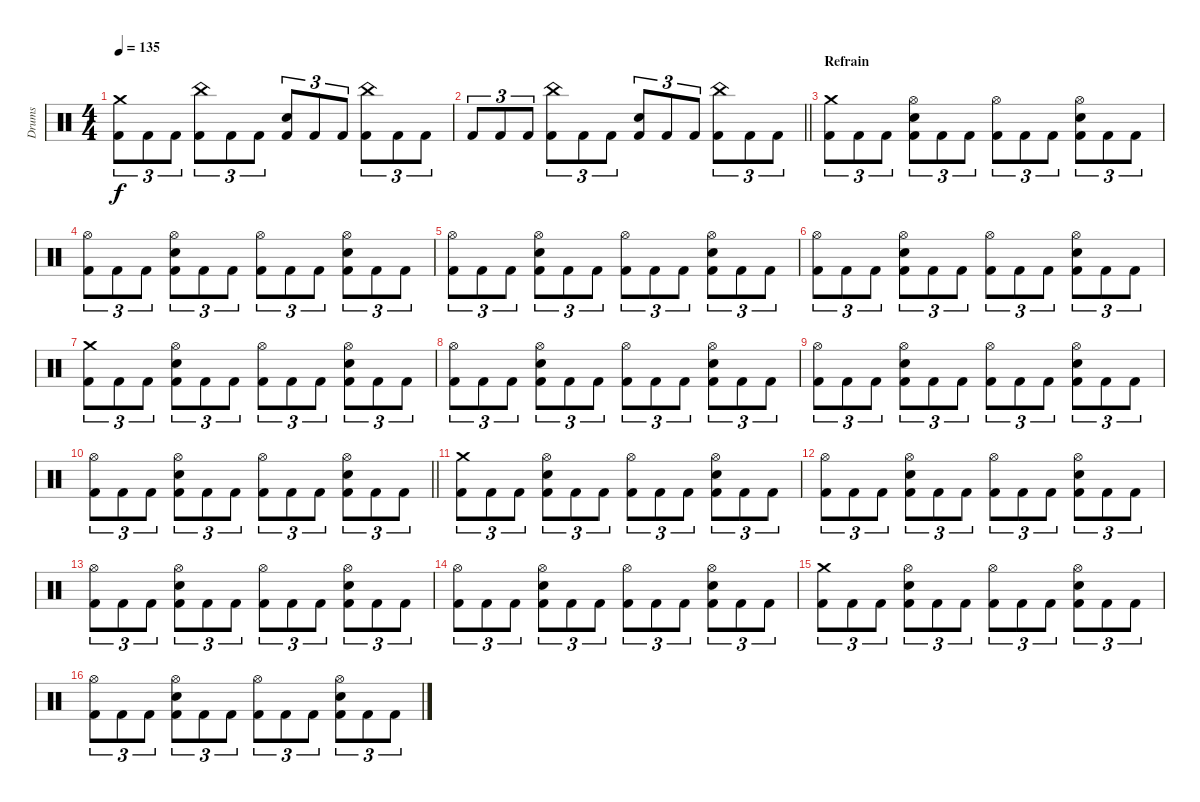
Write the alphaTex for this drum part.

\track ("Drums" "Drums") {instrument percussion}
\staff {score}
\articulation defaults
\ts (4 4)
\tempo 135
\clef neutral
\ks c
("Crash medium (hit)" "Kick (hit) 2").8{tu (3 2) dy f} "Kick (hit) 2".8{tu (3 2)} "Kick (hit) 2".8{tu (3 2)} ("China (hit)" "Kick (hit) 2").8{tu (3 2)} "Kick (hit) 2".8{tu (3 2)} "Kick (hit) 2".8{tu (3 2)} ("Snare (hit) 2" "Kick (hit) 2").8{tu (3 2)} "Kick (hit) 2".8{tu (3 2)} "Kick (hit) 2".8{tu (3 2)} ("China (hit)" "Kick (hit) 2").8{tu (3 2)} "Kick (hit) 2".8{tu (3 2)} "Kick (hit) 2".8{tu (3 2)} |
\barLineRight lightlight "Kick (hit) 2".8{tu (3 2)} "Kick (hit) 2".8{tu (3 2)} "Kick (hit) 2".8{tu (3 2)}
("China (hit)" "Kick (hit) 2").8{tu (3 2)} "Kick (hit) 2".8{tu (3 2)} "Kick (hit) 2".8{tu (3 2)} ("Snare (hit) 2" "Kick (hit) 2").8{tu (3 2)} "Kick (hit) 2".8{tu (3 2)} "Kick (hit) 2".8{tu (3 2)} ("China (hit)" "Kick (hit) 2").8{tu (3 2)} "Kick (hit) 2".8{tu (3 2)} "Kick (hit) 2".8{tu (3 2)} |
\section ("" "Refrain")
("Crash medium (hit)" "Kick (hit) 2").8{tu (3 2)} "Kick (hit) 2".8{tu (3 2)} "Kick (hit) 2".8{tu (3 2)} ("Hi-Hat (open)" "Snare (hit) 2" "Kick (hit) 2").8{tu (3 2)} "Kick (hit) 2".8{tu (3 2)} "Kick (hit) 2".8{tu (3 2)} ("Hi-Hat (open)" "Kick (hit) 2").8{tu (3 2)} "Kick (hit) 2".8{tu (3 2)} "Kick (hit) 2".8{tu (3 2)} ("Hi-Hat (open)" "Snare (hit) 2" "Kick (hit) 2").8{tu (3 2)} "Kick (hit) 2".8{tu (3 2)} "Kick (hit) 2".8{tu (3 2)} |
("Hi-Hat (open)" "Kick (hit) 2").8{tu (3 2)} "Kick (hit) 2".8{tu (3 2)} "Kick (hit) 2".8{tu (3 2)} ("Hi-Hat (open)" "Snare (hit) 2" "Kick (hit) 2").8{tu (3 2)} "Kick (hit) 2".8{tu (3 2)} "Kick (hit) 2".8{tu (3 2)} ("Hi-Hat (open)" "Kick (hit) 2").8{tu (3 2)} "Kick (hit) 2".8{tu (3 2)} "Kick (hit) 2".8{tu (3 2)} ("Hi-Hat (open)" "Snare (hit) 2" "Kick (hit) 2").8{tu (3 2)} "Kick (hit) 2".8{tu (3 2)} "Kick (hit) 2".8{tu (3 2)} |
("Hi-Hat (open)" "Kick (hit) 2").8{tu (3 2)} "Kick (hit) 2".8{tu (3 2)} "Kick (hit) 2".8{tu (3 2)} ("Hi-Hat (open)" "Snare (hit) 2" "Kick (hit) 2").8{tu (3 2)} "Kick (hit) 2".8{tu (3 2)} "Kick (hit) 2".8{tu (3 2)} ("Hi-Hat (open)" "Kick (hit) 2").8{tu (3 2)} "Kick (hit) 2".8{tu (3 2)} "Kick (hit) 2".8{tu (3 2)} ("Hi-Hat (open)" "Snare (hit) 2" "Kick (hit) 2").8{tu (3 2)} "Kick (hit) 2".8{tu (3 2)} "Kick (hit) 2".8{tu (3 2)} |
("Hi-Hat (open)" "Kick (hit) 2").8{tu (3 2)} "Kick (hit) 2".8{tu (3 2)} "Kick (hit) 2".8{tu (3 2)} ("Hi-Hat (open)" "Snare (hit) 2" "Kick (hit) 2").8{tu (3 2)} "Kick (hit) 2".8{tu (3 2)} "Kick (hit) 2".8{tu (3 2)} ("Hi-Hat (open)" "Kick (hit) 2").8{tu (3 2)} "Kick (hit) 2".8{tu (3 2)} "Kick (hit) 2".8{tu (3 2)} ("Hi-Hat (open)" "Snare (hit) 2" "Kick (hit) 2").8{tu (3 2)} "Kick (hit) 2".8{tu (3 2)} "Kick (hit) 2".8{tu (3 2)} |
("Crash medium (hit)" "Kick (hit) 2").8{tu (3 2)} "Kick (hit) 2".8{tu (3 2)} "Kick (hit) 2".8{tu (3 2)} ("Hi-Hat (open)" "Snare (hit) 2" "Kick (hit) 2").8{tu (3 2)} "Kick (hit) 2".8{tu (3 2)} "Kick (hit) 2".8{tu (3 2)} ("Hi-Hat (open)" "Kick (hit) 2").8{tu (3 2)} "Kick (hit) 2".8{tu (3 2)} "Kick (hit) 2".8{tu (3 2)} ("Hi-Hat (open)" "Snare (hit) 2" "Kick (hit) 2").8{tu (3 2)} "Kick (hit) 2".8{tu (3 2)} "Kick (hit) 2".8{tu (3 2)} |
("Hi-Hat (open)" "Kick (hit) 2").8{tu (3 2)} "Kick (hit) 2".8{tu (3 2)} "Kick (hit) 2".8{tu (3 2)} ("Hi-Hat (open)" "Snare (hit) 2" "Kick (hit) 2").8{tu (3 2)} "Kick (hit) 2".8{tu (3 2)} "Kick (hit) 2".8{tu (3 2)} ("Hi-Hat (open)" "Kick (hit) 2").8{tu (3 2)} "Kick (hit) 2".8{tu (3 2)} "Kick (hit) 2".8{tu (3 2)} ("Hi-Hat (open)" "Snare (hit) 2" "Kick (hit) 2").8{tu (3 2)} "Kick (hit) 2".8{tu (3 2)} "Kick (hit) 2".8{tu (3 2)} |
("Hi-Hat (open)" "Kick (hit) 2").8{tu (3 2)} "Kick (hit) 2".8{tu (3 2)} "Kick (hit) 2".8{tu (3 2)} ("Hi-Hat (open)" "Snare (hit) 2" "Kick (hit) 2").8{tu (3 2)} "Kick (hit) 2".8{tu (3 2)} "Kick (hit) 2".8{tu (3 2)} ("Hi-Hat (open)" "Kick (hit) 2").8{tu (3 2)} "Kick (hit) 2".8{tu (3 2)} "Kick (hit) 2".8{tu (3 2)} ("Hi-Hat (open)" "Snare (hit) 2" "Kick (hit) 2").8{tu (3 2)} "Kick (hit) 2".8{tu (3 2)} "Kick (hit) 2".8{tu (3 2)} |
\barLineRight lightlight
("Hi-Hat (open)" "Kick (hit) 2").8{tu (3 2)} "Kick (hit) 2".8{tu (3 2)} "Kick (hit) 2".8{tu (3 2)} ("Hi-Hat (open)" "Snare (hit) 2" "Kick (hit) 2").8{tu (3 2)} "Kick (hit) 2".8{tu (3 2)} "Kick (hit) 2".8{tu (3 2)} ("Hi-Hat (open)" "Kick (hit) 2").8{tu (3 2)} "Kick (hit) 2".8{tu (3 2)} "Kick (hit) 2".8{tu (3 2)} ("Hi-Hat (open)" "Snare (hit) 2" "Kick (hit) 2").8{tu (3 2)} "Kick (hit) 2".8{tu (3 2)} "Kick (hit) 2".8{tu (3 2)} |
("Crash medium (hit)" "Kick (hit) 2").8{tu (3 2)} "Kick (hit) 2".8{tu (3 2)} "Kick (hit) 2".8{tu (3 2)} ("Hi-Hat (open)" "Snare (hit) 2" "Kick (hit) 2").8{tu (3 2)} "Kick (hit) 2".8{tu (3 2)} "Kick (hit) 2".8{tu (3 2)} ("Hi-Hat (open)" "Kick (hit) 2").8{tu (3 2)} "Kick (hit) 2".8{tu (3 2)} "Kick (hit) 2".8{tu (3 2)} ("Hi-Hat (open)" "Snare (hit) 2" "Kick (hit) 2").8{tu (3 2)} "Kick (hit) 2".8{tu (3 2)} "Kick (hit) 2".8{tu (3 2)} |
("Hi-Hat (open)" "Kick (hit) 2").8{tu (3 2)} "Kick (hit) 2".8{tu (3 2)} "Kick (hit) 2".8{tu (3 2)} ("Hi-Hat (open)" "Snare (hit) 2" "Kick (hit) 2").8{tu (3 2)} "Kick (hit) 2".8{tu (3 2)} "Kick (hit) 2".8{tu (3 2)} ("Hi-Hat (open)" "Kick (hit) 2").8{tu (3 2)} "Kick (hit) 2".8{tu (3 2)} "Kick (hit) 2".8{tu (3 2)} ("Hi-Hat (open)" "Snare (hit) 2" "Kick (hit) 2").8{tu (3 2)} "Kick (hit) 2".8{tu (3 2)} "Kick (hit) 2".8{tu (3 2)} |
("Hi-Hat (open)" "Kick (hit) 2").8{tu (3 2)} "Kick (hit) 2".8{tu (3 2)} "Kick (hit) 2".8{tu (3 2)} ("Hi-Hat (open)" "Snare (hit) 2" "Kick (hit) 2").8{tu (3 2)} "Kick (hit) 2".8{tu (3 2)} "Kick (hit) 2".8{tu (3 2)} ("Hi-Hat (open)" "Kick (hit) 2").8{tu (3 2)} "Kick (hit) 2".8{tu (3 2)} "Kick (hit) 2".8{tu (3 2)} ("Hi-Hat (open)" "Snare (hit) 2" "Kick (hit) 2").8{tu (3 2)} "Kick (hit) 2".8{tu (3 2)} "Kick (hit) 2".8{tu (3 2)} |
("Hi-Hat (open)" "Kick (hit) 2").8{tu (3 2)} "Kick (hit) 2".8{tu (3 2)} "Kick (hit) 2".8{tu (3 2)} ("Hi-Hat (open)" "Snare (hit) 2" "Kick (hit) 2").8{tu (3 2)} "Kick (hit) 2".8{tu (3 2)} "Kick (hit) 2".8{tu (3 2)} ("Hi-Hat (open)" "Kick (hit) 2").8{tu (3 2)} "Kick (hit) 2".8{tu (3 2)} "Kick (hit) 2".8{tu (3 2)} ("Hi-Hat (open)" "Snare (hit) 2" "Kick (hit) 2").8{tu (3 2)} "Kick (hit) 2".8{tu (3 2)} "Kick (hit) 2".8{tu (3 2)} |
("Crash medium (hit)" "Kick (hit) 2").8{tu (3 2)} "Kick (hit) 2".8{tu (3 2)} "Kick (hit) 2".8{tu (3 2)} ("Hi-Hat (open)" "Snare (hit) 2" "Kick (hit) 2").8{tu (3 2)} "Kick (hit) 2".8{tu (3 2)} "Kick (hit) 2".8{tu (3 2)} ("Hi-Hat (open)" "Kick (hit) 2").8{tu (3 2)} "Kick (hit) 2".8{tu (3 2)} "Kick (hit) 2".8{tu (3 2)} ("Hi-Hat (open)" "Snare (hit) 2" "Kick (hit) 2").8{tu (3 2)} "Kick (hit) 2".8{tu (3 2)} "Kick (hit) 2".8{tu (3 2)} |
("Hi-Hat (open)" "Kick (hit) 2").8{tu (3 2)} "Kick (hit) 2".8{tu (3 2)} "Kick (hit) 2".8{tu (3 2)} ("Hi-Hat (open)" "Snare (hit) 2" "Kick (hit) 2").8{tu (3 2)} "Kick (hit) 2".8{tu (3 2)} "Kick (hit) 2".8{tu (3 2)} ("Hi-Hat (open)" "Kick (hit) 2").8{tu (3 2)} "Kick (hit) 2".8{tu (3 2)} "Kick (hit) 2".8{tu (3 2)} ("Hi-Hat (open)" "Snare (hit) 2" "Kick (hit) 2").8{tu (3 2)} "Kick (hit) 2".8{tu (3 2)} "Kick (hit) 2".8{tu (3 2)}
